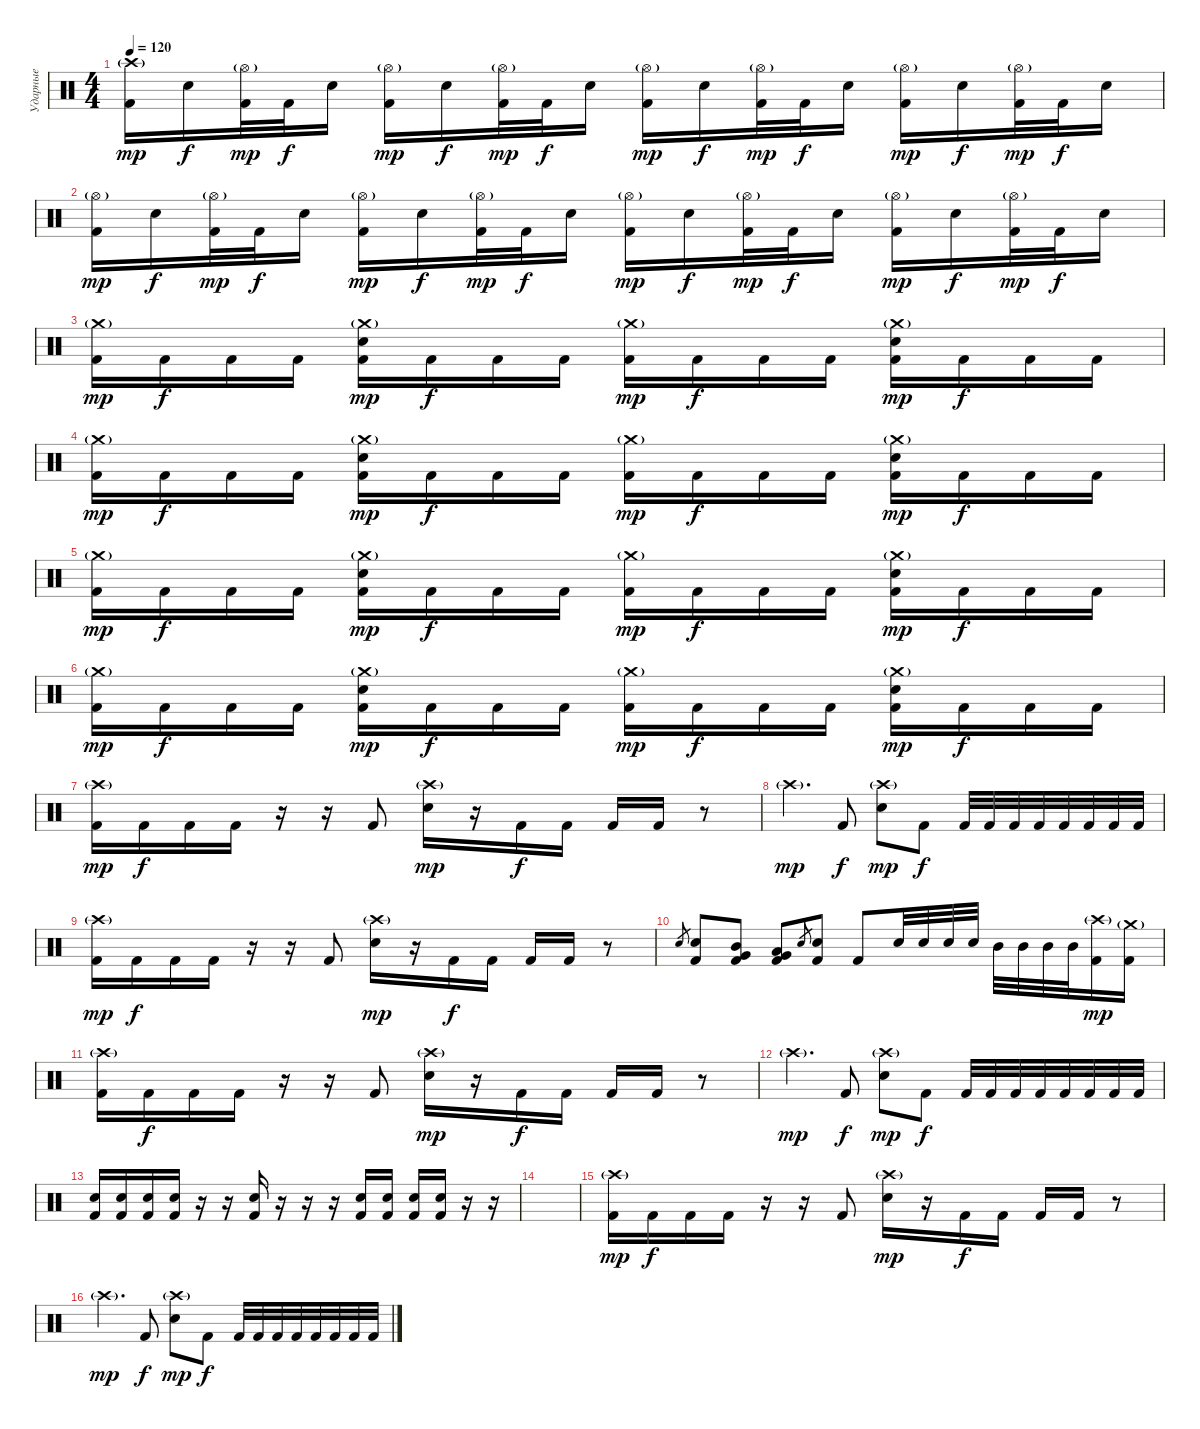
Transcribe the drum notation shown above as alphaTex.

\track ("Ударные" "Ударные") {instrument percussion}
\staff {score}
\articulation defaults
\ts (4 4)
\tempo 120
\clef neutral
\ks c
("Crash high (hit)"{g} "Kick (hit) 2").16{dy mp} "Electric Snare (hit)".16{dy f} ("Hi-Hat (open)"{g} "Kick (hit) 2").32{dy mp} "Kick (hit) 2".32{dy f} "Electric Snare (hit)".16 ("Hi-Hat (open)"{g} "Kick (hit) 2").16{dy mp} "Electric Snare (hit)".16{dy f} ("Hi-Hat (open)"{g} "Kick (hit) 2").32{dy mp} "Kick (hit) 2".32{dy f} "Electric Snare (hit)".16 ("Hi-Hat (open)"{g} "Kick (hit) 2").16{dy mp} "Electric Snare (hit)".16{dy f} ("Hi-Hat (open)"{g} "Kick (hit) 2").32{dy mp} "Kick (hit) 2".32{dy f} "Electric Snare (hit)".16 ("Hi-Hat (open)"{g} "Kick (hit) 2").16{dy mp} "Electric Snare (hit)".16{dy f} ("Hi-Hat (open)"{g} "Kick (hit) 2").32{dy mp} "Kick (hit) 2".32{dy f} "Electric Snare (hit)".16 |
("Hi-Hat (open)"{g} "Kick (hit) 2").16{dy mp} "Electric Snare (hit)".16{dy f} ("Hi-Hat (open)"{g} "Kick (hit) 2").32{dy mp} "Kick (hit) 2".32{dy f} "Electric Snare (hit)".16 ("Hi-Hat (open)"{g} "Kick (hit) 2").16{dy mp} "Electric Snare (hit)".16{dy f} ("Hi-Hat (open)"{g} "Kick (hit) 2").32{dy mp} "Kick (hit) 2".32{dy f} "Electric Snare (hit)".16 ("Hi-Hat (open)"{g} "Kick (hit) 2").16{dy mp} "Electric Snare (hit)".16{dy f} ("Hi-Hat (open)"{g} "Kick (hit) 2").32{dy mp} "Kick (hit) 2".32{dy f} "Electric Snare (hit)".16 ("Hi-Hat (open)"{g} "Kick (hit) 2").16{dy mp} "Electric Snare (hit)".16{dy f} ("Hi-Hat (open)"{g} "Kick (hit) 2").32{dy mp} "Kick (hit) 2".32{dy f} "Electric Snare (hit)".16 |
("Crash medium (hit)"{g} "Kick (hit) 2").16{dy mp} "Kick (hit) 2".16{dy f} "Kick (hit) 2".16 "Kick (hit) 2".16 ("Crash medium (hit)"{g} "Electric Snare (hit)" "Kick (hit) 2").16{dy mp} "Kick (hit) 2".16{dy f} "Kick (hit) 2".16 "Kick (hit) 2".16 ("Crash medium (hit)"{g} "Kick (hit) 2").16{dy mp} "Kick (hit) 2".16{dy f} "Kick (hit) 2".16 "Kick (hit) 2".16 ("Crash medium (hit)"{g} "Electric Snare (hit)" "Kick (hit) 2").16{dy mp} "Kick (hit) 2".16{dy f} "Kick (hit) 2".16 "Kick (hit) 2".16 |
("Crash medium (hit)"{g} "Kick (hit) 2").16{dy mp} "Kick (hit) 2".16{dy f} "Kick (hit) 2".16 "Kick (hit) 2".16 ("Crash medium (hit)"{g} "Electric Snare (hit)" "Kick (hit) 2").16{dy mp} "Kick (hit) 2".16{dy f} "Kick (hit) 2".16 "Kick (hit) 2".16 ("Crash medium (hit)"{g} "Kick (hit) 2").16{dy mp} "Kick (hit) 2".16{dy f} "Kick (hit) 2".16 "Kick (hit) 2".16 ("Crash medium (hit)"{g} "Electric Snare (hit)" "Kick (hit) 2").16{dy mp} "Kick (hit) 2".16{dy f} "Kick (hit) 2".16 "Kick (hit) 2".16 |
("Crash medium (hit)"{g} "Kick (hit) 2").16{dy mp} "Kick (hit) 2".16{dy f} "Kick (hit) 2".16 "Kick (hit) 2".16 ("Crash medium (hit)"{g} "Electric Snare (hit)" "Kick (hit) 2").16{dy mp} "Kick (hit) 2".16{dy f} "Kick (hit) 2".16 "Kick (hit) 2".16 ("Crash medium (hit)"{g} "Kick (hit) 2").16{dy mp} "Kick (hit) 2".16{dy f} "Kick (hit) 2".16 "Kick (hit) 2".16 ("Crash medium (hit)"{g} "Electric Snare (hit)" "Kick (hit) 2").16{dy mp} "Kick (hit) 2".16{dy f} "Kick (hit) 2".16 "Kick (hit) 2".16 |
("Crash medium (hit)"{g} "Kick (hit) 2").16{dy mp} "Kick (hit) 2".16{dy f} "Kick (hit) 2".16 "Kick (hit) 2".16 ("Crash medium (hit)"{g} "Electric Snare (hit)" "Kick (hit) 2").16{dy mp} "Kick (hit) 2".16{dy f} "Kick (hit) 2".16 "Kick (hit) 2".16 ("Crash medium (hit)"{g} "Kick (hit) 2").16{dy mp} "Kick (hit) 2".16{dy f} "Kick (hit) 2".16 "Kick (hit) 2".16 ("Crash medium (hit)"{g} "Electric Snare (hit)" "Kick (hit) 2").16{dy mp} "Kick (hit) 2".16{dy f} "Kick (hit) 2".16 "Kick (hit) 2".16 |
("Crash high (hit)"{g} "Kick (hit) 2").16{dy mp} "Kick (hit) 2".16{dy f} "Kick (hit) 2".16 "Kick (hit) 2".16 r.16 r.16 "Kick (hit) 2".8 ("Crash high (hit)"{g} "Electric Snare (hit)").16{dy mp} r.16 "Kick (hit) 2".16{dy f} "Kick (hit) 2".16 "Kick (hit) 2".16 "Kick (hit) 2".16 r.8 |
"Crash high (hit)"{g}.4{d dy mp} "Kick (hit) 2".8{dy f} ("Crash high (hit)"{g} "Electric Snare (hit)").8{dy mp} "Kick (hit) 2".8{dy f} "Kick (hit) 2".32 "Kick (hit) 2".32 "Kick (hit) 2".32 "Kick (hit) 2".32 "Kick (hit) 2".32 "Kick (hit) 2".32 "Kick (hit) 2".32 "Kick (hit) 2".32 |
("Crash high (hit)"{g} "Kick (hit) 2").16{dy mp} "Kick (hit) 2".16{dy f} "Kick (hit) 2".16 "Kick (hit) 2".16 r.16 r.16 "Kick (hit) 2".8 ("Crash high (hit)"{g} "Electric Snare (hit)").16{dy mp} r.16 "Kick (hit) 2".16{dy f} "Kick (hit) 2".16 "Kick (hit) 2".16 "Kick (hit) 2".16 r.8 |
"Electric Snare (hit)".8{gr} ("Electric Snare (hit)" "Kick (hit) 2").8 ("Very Low Tom (hit)" "Mid Tom (hit)" "Kick (hit) 2").8 ("Very Low Tom (hit)" "Low Tom (hit)" "Kick (hit) 2").8 "Electric Snare (hit)".8{gr} ("Electric Snare (hit)" "Kick (hit) 2").8 "Kick (hit) 2".8 "Electric Snare (hit)".32 "Electric Snare (hit)".32 "Electric Snare (hit)".32 "Electric Snare (hit)".32 "Mid Tom (hit)".32 "Mid Tom (hit)".32 "Mid Tom (hit)".32 "Mid Tom (hit)".32 ("Crash high (hit)"{g} "Kick (hit) 2").16{dy mp} ("Crash medium (hit)"{g} "Kick (hit) 2").16 |
("Crash high (hit)"{g} "Kick (hit) 2").16 "Kick (hit) 2".16{dy f} "Kick (hit) 2".16 "Kick (hit) 2".16 r.16 r.16 "Kick (hit) 2".8 ("Crash high (hit)"{g} "Electric Snare (hit)").16{dy mp} r.16 "Kick (hit) 2".16{dy f} "Kick (hit) 2".16 "Kick (hit) 2".16 "Kick (hit) 2".16 r.8 |
"Crash high (hit)"{g}.4{d dy mp} "Kick (hit) 2".8{dy f} ("Crash high (hit)"{g} "Electric Snare (hit)").8{dy mp} "Kick (hit) 2".8{dy f} "Kick (hit) 2".32 "Kick (hit) 2".32 "Kick (hit) 2".32 "Kick (hit) 2".32 "Kick (hit) 2".32 "Kick (hit) 2".32 "Kick (hit) 2".32 "Kick (hit) 2".32 |
("Electric Snare (hit)" "Kick (hit) 2").16 ("Electric Snare (hit)" "Kick (hit) 2").16 ("Electric Snare (hit)" "Kick (hit) 2").16 ("Electric Snare (hit)" "Kick (hit) 2").16 r.16 r.16 ("Electric Snare (hit)" "Kick (hit) 2").16 r.16 r.16 r.16 ("Electric Snare (hit)" "Kick (hit) 2").16 ("Electric Snare (hit)" "Kick (hit) 2").16 ("Electric Snare (hit)" "Kick (hit) 2").16 ("Electric Snare (hit)" "Kick (hit) 2").16 r.16 r.16 |
|
("Crash high (hit)"{g} "Kick (hit) 2").16{dy mp} "Kick (hit) 2".16{dy f} "Kick (hit) 2".16 "Kick (hit) 2".16 r.16 r.16 "Kick (hit) 2".8 ("Crash high (hit)"{g} "Electric Snare (hit)").16{dy mp} r.16 "Kick (hit) 2".16{dy f} "Kick (hit) 2".16 "Kick (hit) 2".16 "Kick (hit) 2".16 r.8 |
"Crash high (hit)"{g}.4{d dy mp} "Kick (hit) 2".8{dy f} ("Crash high (hit)"{g} "Electric Snare (hit)").8{dy mp} "Kick (hit) 2".8{dy f} "Kick (hit) 2".32 "Kick (hit) 2".32 "Kick (hit) 2".32 "Kick (hit) 2".32 "Kick (hit) 2".32 "Kick (hit) 2".32 "Kick (hit) 2".32 "Kick (hit) 2".32
